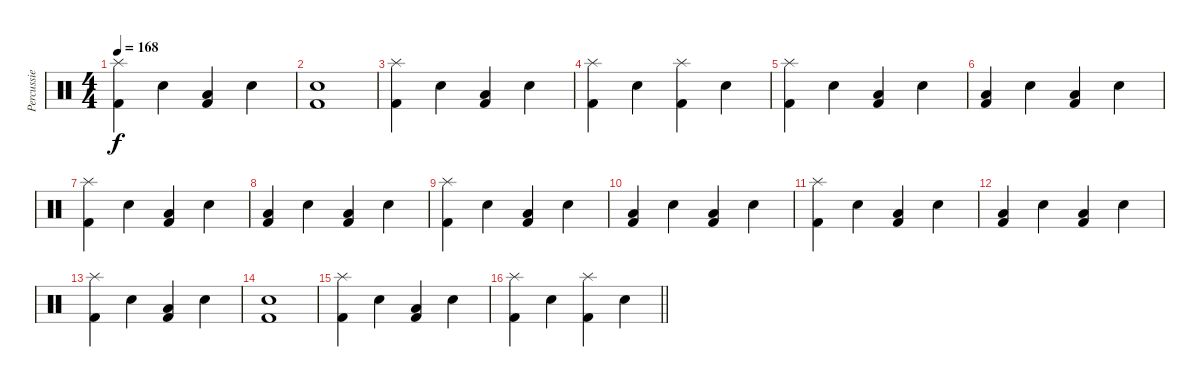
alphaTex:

\track ("Percussie" "Percussie") {instrument percussion}
\staff {score}
\articulation defaults
\ts (4 4)
\tempo 168
\clef neutral
\ks c
("Splash (hit)" "Kick (hit) 2").4{dy f} "Snare (hit) 2".4 ("Low Floor Tom (hit)" "Kick (hit) 2").4 "Snare (hit) 2".4 |
("Snare (hit) 2" "Kick (hit) 2").1 |
("Splash (hit)" "Kick (hit) 2").4 "Snare (hit) 2".4 ("Low Floor Tom (hit)" "Kick (hit) 2").4 "Snare (hit) 2".4 |
("Splash (hit)" "Kick (hit) 2").4 "Snare (hit) 2".4 ("Splash (hit)" "Kick (hit) 2").4 "Snare (hit) 2".4 |
("Splash (hit)" "Kick (hit) 2").4 "Snare (hit) 2".4 ("Low Floor Tom (hit)" "Kick (hit) 2").4 "Snare (hit) 2".4 |
("Low Floor Tom (hit)" "Kick (hit) 2").4 "Snare (hit) 2".4 ("Low Floor Tom (hit)" "Kick (hit) 2").4 "Snare (hit) 2".4 |
("Splash (hit)" "Kick (hit) 2").4 "Snare (hit) 2".4 ("Low Floor Tom (hit)" "Kick (hit) 2").4 "Snare (hit) 2".4 |
("Low Floor Tom (hit)" "Kick (hit) 2").4 "Snare (hit) 2".4 ("Low Floor Tom (hit)" "Kick (hit) 2").4 "Snare (hit) 2".4 |
("Splash (hit)" "Kick (hit) 2").4 "Snare (hit) 2".4 ("Low Floor Tom (hit)" "Kick (hit) 2").4 "Snare (hit) 2".4 |
("Low Floor Tom (hit)" "Kick (hit) 2").4 "Snare (hit) 2".4 ("Low Floor Tom (hit)" "Kick (hit) 2").4 "Snare (hit) 2".4 |
("Splash (hit)" "Kick (hit) 2").4 "Snare (hit) 2".4 ("Low Floor Tom (hit)" "Kick (hit) 2").4 "Snare (hit) 2".4 |
("Low Floor Tom (hit)" "Kick (hit) 2").4 "Snare (hit) 2".4 ("Low Floor Tom (hit)" "Kick (hit) 2").4 "Snare (hit) 2".4 |
("Splash (hit)" "Kick (hit) 2").4 "Snare (hit) 2".4 ("Low Floor Tom (hit)" "Kick (hit) 2").4 "Snare (hit) 2".4 |
("Snare (hit) 2" "Kick (hit) 2").1 |
("Splash (hit)" "Kick (hit) 2").4 "Snare (hit) 2".4 ("Low Floor Tom (hit)" "Kick (hit) 2").4 "Snare (hit) 2".4 |
\barLineRight lightlight
("Splash (hit)" "Kick (hit) 2").4 "Snare (hit) 2".4 ("Splash (hit)" "Kick (hit) 2").4 "Snare (hit) 2".4
